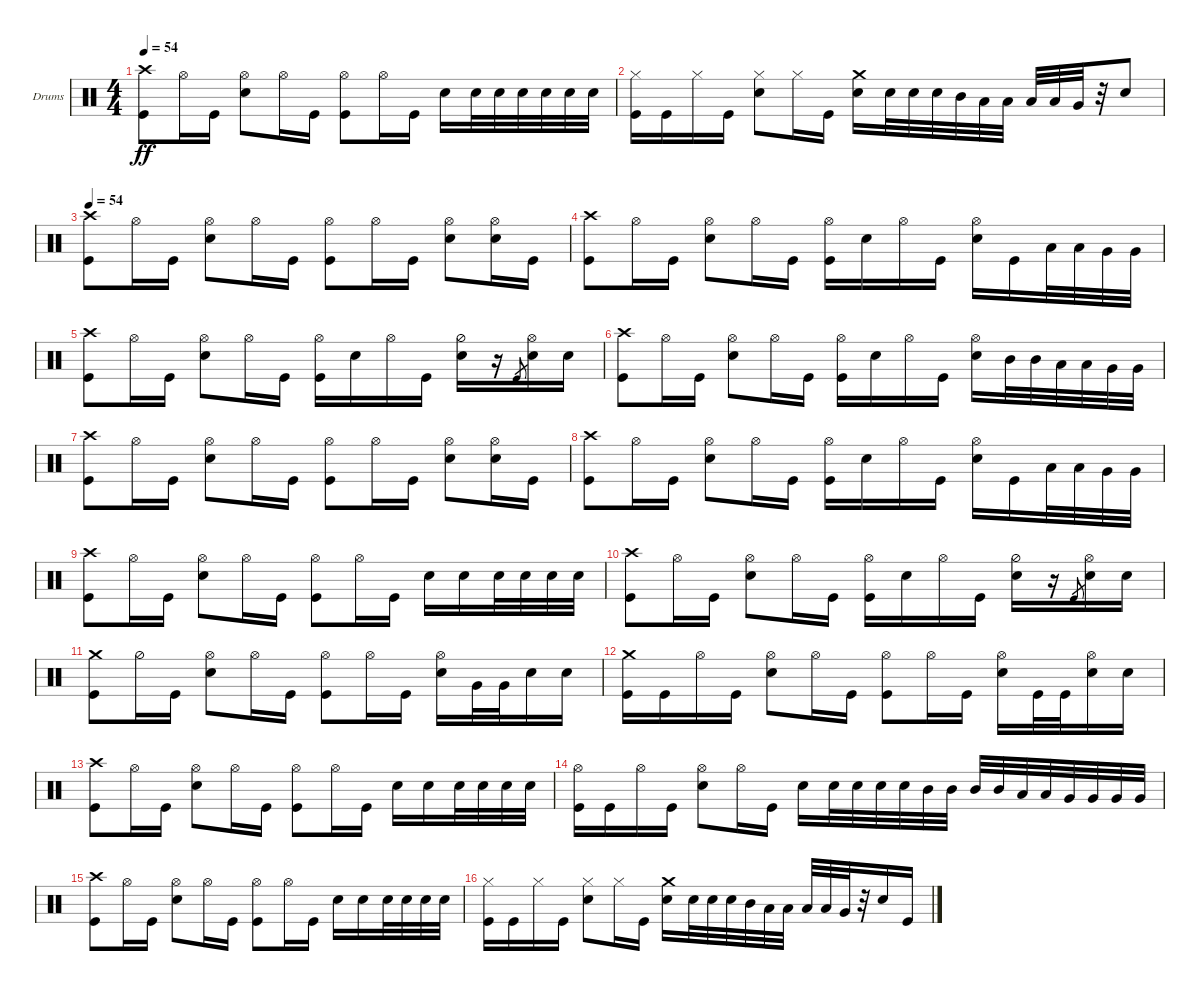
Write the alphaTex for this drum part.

\bracketExtendMode groupsimilarinstruments
\firstSystemTrackNameOrientation horizontal
\otherSystemsTrackNameOrientation horizontal
\track ("Drumkit" "Drums") {instrument percussion}
\staff {score}
\articulation defaults
\ts (4 4)
\tempo 54
\clef neutral
\ks c
("Kick (hit)" "Crash high (hit)").8{dy ff} "Hi-Hat (open)".16 "Kick (hit)".16 ("Snare (hit) 2" "Hi-Hat (open)").8 "Hi-Hat (open)".16 "Kick (hit)".16 ("Kick (hit)" "Hi-Hat (open)").8 "Hi-Hat (open)".16 "Kick (hit)".16 "Snare (hit) 2".16 "Snare (hit) 2".32 "Snare (hit) 2".32 "Snare (hit) 2".32 "Snare (hit) 2".32 "Snare (hit) 2".32 "Snare (hit) 2".32 |
("Kick (hit)" "Hi-Hat (closed)").16 "Kick (hit)".16 "Hi-Hat (closed)".16 "Kick (hit)".16 ("Snare (hit) 2" "Hi-Hat (closed)").8 "Hi-Hat (closed)".16 "Kick (hit)".16 ("Snare (hit) 2" "Crash medium (hit)").16 "Snare (hit) 2".32 "Snare (hit) 2".32 "Snare (hit) 2".32 "Mid Tom (hit)".32 "Low Tom (hit)".32 "Low Tom (hit)".32 "Low Tom (hit)".32 "Low Tom (hit)".32 "Very Low Tom (hit)".32 r.32 "Snare (hit) 2".8 |
\tempo 54
("Kick (hit)" "Crash high (hit)").8 "Hi-Hat (open)".16 "Kick (hit)".16 ("Snare (hit) 2" "Hi-Hat (open)").8 "Hi-Hat (open)".16 "Kick (hit)".16 ("Kick (hit)" "Hi-Hat (open)").8 "Hi-Hat (open)".16 "Kick (hit)".16 ("Hi-Hat (open)" "Snare (hit) 2").8 ("Snare (hit) 2" "Hi-Hat (open)").16 "Kick (hit)".16 |
("Kick (hit)" "Crash high (hit)").8 "Hi-Hat (open)".16 "Kick (hit)".16 ("Snare (hit) 2" "Hi-Hat (open)").8 "Hi-Hat (open)".16 "Kick (hit)".16 ("Kick (hit)" "Hi-Hat (open)").16 "Snare (hit) 2".16 "Hi-Hat (open)".16 "Kick (hit)".16 ("Snare (hit) 2" "Hi-Hat (open)").16 "Kick (hit)".16 "Low Tom (hit)".32 "Low Tom (hit)".32 "Very Low Tom (hit)".32 "Very Low Tom (hit)".32 |
("Kick (hit)" "Crash high (hit)").8 "Hi-Hat (open)".16 "Kick (hit)".16 ("Snare (hit) 2" "Hi-Hat (open)").8 "Hi-Hat (open)".16 "Kick (hit)".16 ("Kick (hit)" "Hi-Hat (open)").16 "Snare (hit) 2".16 "Hi-Hat (open)".16 "Kick (hit)".16 ("Snare (hit) 2" "Hi-Hat (half)").16 r.16 "Kick (hit)".8{gr} ("Snare (hit) 2" "Hi-Hat (open)").16 "Snare (hit) 2".16 |
("Kick (hit)" "Crash high (hit)").8 "Hi-Hat (open)".16 "Kick (hit)".16 ("Snare (hit) 2" "Hi-Hat (open)").8 "Hi-Hat (open)".16 "Kick (hit)".16 ("Kick (hit)" "Hi-Hat (open)").16 "Snare (hit) 2".16 "Hi-Hat (open)".16 "Kick (hit)".16 ("Snare (hit) 2" "Hi-Hat (open)").16 "Mid Tom (hit)".32 "Mid Tom (hit)".32 "Low Tom (hit)".32 "Low Tom (hit)".32 "Very Low Tom (hit)".32 "Very Low Tom (hit)".32 |
("Kick (hit)" "Crash high (hit)").8 "Hi-Hat (open)".16 "Kick (hit)".16 ("Snare (hit) 2" "Hi-Hat (open)").8 "Hi-Hat (open)".16 "Kick (hit)".16 ("Kick (hit)" "Hi-Hat (open)").8 "Hi-Hat (open)".16 "Kick (hit)".16 ("Hi-Hat (open)" "Snare (hit) 2").8 ("Snare (hit) 2" "Hi-Hat (open)").16 "Kick (hit)".16 |
("Kick (hit)" "Crash high (hit)").8 "Hi-Hat (open)".16 "Kick (hit)".16 ("Snare (hit) 2" "Hi-Hat (open)").8 "Hi-Hat (open)".16 "Kick (hit)".16 ("Kick (hit)" "Hi-Hat (open)").16 "Snare (hit) 2".16 "Hi-Hat (open)".16 "Kick (hit)".16 ("Snare (hit) 2" "Hi-Hat (open)").16 "Kick (hit)".16 "Low Tom (hit)".32 "Low Tom (hit)".32 "Very Low Tom (hit)".32 "Very Low Tom (hit)".32 |
("Kick (hit)" "Crash high (hit)").8 "Hi-Hat (open)".16 "Kick (hit)".16 ("Snare (hit) 2" "Hi-Hat (open)").8 "Hi-Hat (open)".16 "Kick (hit)".16 ("Kick (hit)" "Hi-Hat (open)").8 "Hi-Hat (open)".16 "Kick (hit)".16 "Snare (hit) 2".16 "Snare (hit) 2".16 "Snare (hit) 2".32 "Snare (hit) 2".32 "Snare (hit) 2".32 "Snare (hit) 2".32 |
("Kick (hit)" "Crash high (hit)").8 "Hi-Hat (open)".16 "Kick (hit)".16 ("Snare (hit) 2" "Hi-Hat (open)").8 "Hi-Hat (open)".16 "Kick (hit)".16 ("Kick (hit)" "Hi-Hat (open)").16 "Snare (hit) 2".16 "Hi-Hat (open)".16 "Kick (hit)".16 ("Snare (hit) 2" "Hi-Hat (half)").16 r.16 "Kick (hit)".8{gr} ("Snare (hit) 2" "Hi-Hat (open)").16 "Snare (hit) 2".16 |
("Crash medium (hit)" "Kick (hit)").8 "Hi-Hat (half)".16 "Kick (hit)".16 ("Snare (hit) 2" "Hi-Hat (open)").8 "Hi-Hat (open)".16 "Kick (hit)".16 ("Kick (hit)" "Hi-Hat (open)").8 "Hi-Hat (open)".16 "Kick (hit)".16 ("Hi-Hat (open)" "Snare (hit) 2").16 "Very Low Tom (hit)".32 "Very Low Tom (hit)".32 "Snare (hit) 2".16 "Snare (hit) 2".16 |
("Crash medium (hit)" "Kick (hit)").16 "Kick (hit)".16 "Hi-Hat (open)".16 "Kick (hit)".16 ("Snare (hit) 2" "Hi-Hat (open)").8 "Hi-Hat (open)".16 "Kick (hit)".16 ("Kick (hit)" "Hi-Hat (open)").8 "Hi-Hat (open)".16 "Kick (hit)".16 ("Hi-Hat (open)" "Snare (hit) 2").16 "Kick (hit)".32 "Kick (hit)".32 ("Snare (hit) 2" "Hi-Hat (open)").16 "Snare (hit) 2".16 |
("Kick (hit)" "Crash high (hit)").8 "Hi-Hat (open)".16 "Kick (hit)".16 ("Snare (hit) 2" "Hi-Hat (open)").8 "Hi-Hat (open)".16 "Kick (hit)".16 ("Kick (hit)" "Hi-Hat (open)").8 "Hi-Hat (open)".16 "Kick (hit)".16 "Snare (hit) 2".16 "Snare (hit) 2".16 "Snare (hit) 2".32 "Snare (hit) 2".32 "Snare (hit) 2".32 "Snare (hit) 2".32 |
("Kick (hit)" "Hi-Hat (open)").16 "Kick (hit)".16 "Hi-Hat (open)".16 "Kick (hit)".16 ("Snare (hit) 2" "Hi-Hat (open)").8 "Hi-Hat (open)".16 "Kick (hit)".16 "Snare (hit) 2".16 "Snare (hit) 2".32 "Snare (hit) 2".32 "Snare (hit) 2".32 "Snare (hit) 2".32 "Mid Tom (hit)".32 "Mid Tom (hit)".32 "Mid Tom (hit)".32 "Mid Tom (hit)".32 "Low Tom (hit)".32 "Low Tom (hit)".32 "Very Low Tom (hit)".32 "Very Low Tom (hit)".32 "Very Low Tom (hit)".32 "Very Low Tom (hit)".32 |
("Kick (hit)" "Crash high (hit)").8 "Hi-Hat (open)".16 "Kick (hit)".16 ("Snare (hit) 2" "Hi-Hat (open)").8 "Hi-Hat (open)".16 "Kick (hit)".16 ("Kick (hit)" "Hi-Hat (open)").8 "Hi-Hat (open)".16 "Kick (hit)".16 "Snare (hit) 2".16 "Snare (hit) 2".16 "Snare (hit) 2".32 "Snare (hit) 2".32 "Snare (hit) 2".32 "Snare (hit) 2".32 |
("Kick (hit)" "Hi-Hat (closed)").16 "Kick (hit)".16 "Hi-Hat (closed)".16 "Kick (hit)".16 ("Snare (hit) 2" "Hi-Hat (closed)").8 "Hi-Hat (closed)".16 "Kick (hit)".16 ("Snare (hit) 2" "Crash medium (hit)").16 "Snare (hit) 2".32 "Snare (hit) 2".32 "Snare (hit) 2".32 "Mid Tom (hit)".32 "Low Tom (hit)".32 "Low Tom (hit)".32 "Low Tom (hit)".32 "Low Tom (hit)".32 "Very Low Tom (hit)".32 r.32 "Snare (hit) 2".16 "Kick (hit)".16
